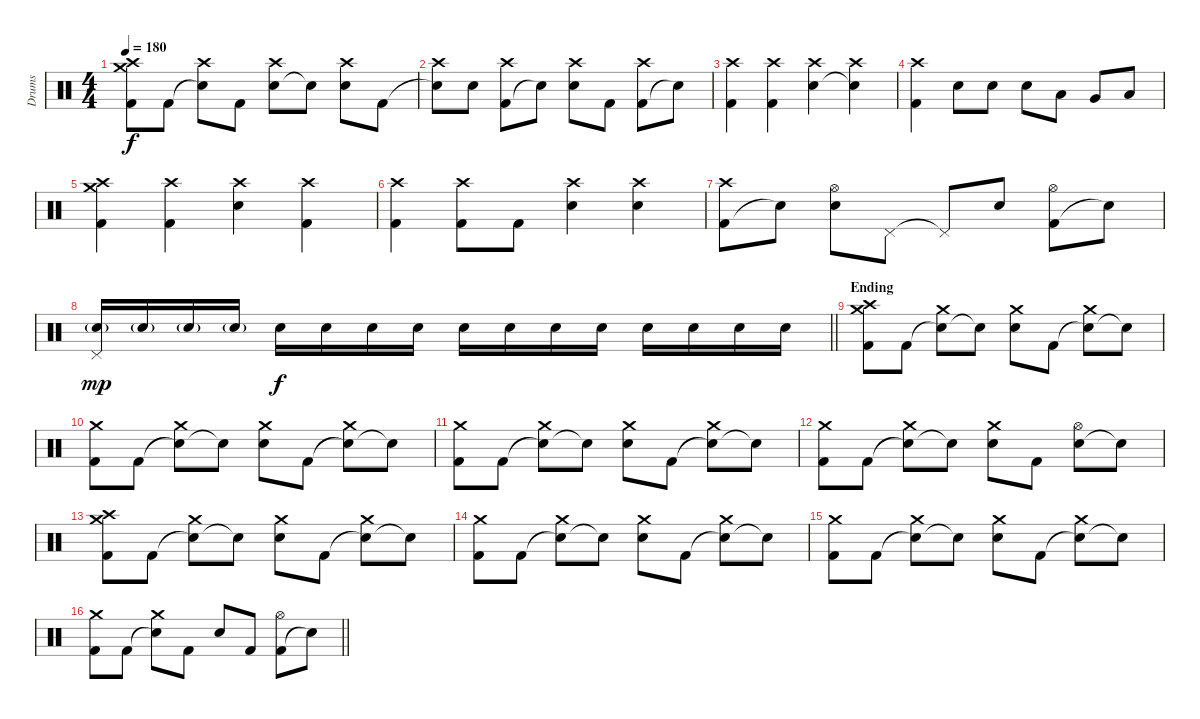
\track ("Drums" "Drums") {instrument percussion}
\staff {score}
\articulation defaults
\ts (4 4)
\tempo 180
\clef neutral
\ks c
("Kick (hit) 2" "Crash medium (hit)" "Crash high (hit)").8{dy f} "Kick (hit) 2".8 ("Snare (hit)"{t} "Crash high (hit)").8 "Kick (hit) 2".8 ("Electric Snare (hit)" "Crash high (hit)").8 "Snare (hit)"{t}.8 ("Electric Snare (hit)" "Crash high (hit)").8 "Kick (hit) 2".8 |
("Snare (hit)"{t} "Crash high (hit)").8 "Electric Snare (hit)".8 ("Kick (hit) 2" "Crash high (hit)").8 "Snare (hit)"{t}.8 ("Electric Snare (hit)" "Crash high (hit)").8 "Kick (hit) 2".8 ("Kick (hit) 2" "Crash high (hit)").8 "Electric Snare (hit)"{t}.8 |
("Kick (hit) 2" "Crash high (hit)").4 ("Kick (hit) 2" "Crash high (hit)").4 ("Electric Snare (hit)" "Crash high (hit)").4 ("Snare (hit)"{t} "Crash high (hit)").4 |
("Kick (hit) 2" "Crash high (hit)").4 "Electric Snare (hit)".8 "Electric Snare (hit)".8 "Electric Snare (hit)".8 "Low Tom (hit)".8 "Very Low Tom (hit)".8 "Low Floor Tom (hit)".8 |
("Kick (hit) 2" "Crash medium (hit)" "Crash high (hit)").4 ("Kick (hit) 2" "Crash high (hit)").4 ("Electric Snare (hit)" "Crash high (hit)").4 ("Kick (hit) 2" "Crash high (hit)").4 |
("Kick (hit) 2" "Crash high (hit)").4 ("Kick (hit) 2" "Crash high (hit)").8 "Kick (hit) 2".8 ("Electric Snare (hit)" "Crash high (hit)").4 ("Electric Snare (hit)" "Crash high (hit)").4 |
("Kick (hit) 2" "Crash high (hit)").8 "Snare (hit)"{t}.8 ("Electric Snare (hit)" "Hi-Hat (open)").8 "Pedal Hi-Hat (hit)".8 "Pedal Hi-Hat (hit)"{t}.8 "Electric Snare (hit)".8 ("Kick (hit) 2" "Hi-Hat (open)").8 "Snare (hit)"{t}.8 |
\barLineRight lightlight
("Electric Snare (hit)"{g} "Pedal Hi-Hat (hit)").16{dy mp} "Electric Snare (hit)"{g}.16 "Electric Snare (hit)"{g}.16 "Electric Snare (hit)"{g}.16 "Electric Snare (hit)".16{dy f} "Electric Snare (hit)".16 "Electric Snare (hit)".16 "Electric Snare (hit)".16 "Electric Snare (hit)".16 "Electric Snare (hit)".16 "Electric Snare (hit)".16 "Electric Snare (hit)".16 "Electric Snare (hit)".16 "Electric Snare (hit)".16 "Electric Snare (hit)".16 "Electric Snare (hit)".16 |
\section ("" "Ending")
("Kick (hit) 2" "Crash medium (hit)" "Crash high (hit)").8 "Kick (hit) 2".8 ("Snare (hit)"{t} "Crash medium (hit)").8 "Snare (hit)"{t}.8 ("Electric Snare (hit)" "Crash medium (hit)").8 "Kick (hit) 2".8 ("Snare (hit)"{t} "Crash medium (hit)").8 "Snare (hit)"{t}.8 |
("Kick (hit) 2" "Crash medium (hit)").8 "Kick (hit) 2".8 ("Snare (hit)"{t} "Crash medium (hit)").8 "Snare (hit)"{t}.8 ("Electric Snare (hit)" "Crash medium (hit)").8 "Kick (hit) 2".8 ("Snare (hit)"{t} "Crash medium (hit)").8 "Snare (hit)"{t}.8 |
("Kick (hit) 2" "Crash medium (hit)").8 "Kick (hit) 2".8 ("Snare (hit)"{t} "Crash medium (hit)").8 "Snare (hit)"{t}.8 ("Electric Snare (hit)" "Crash medium (hit)").8 "Kick (hit) 2".8 ("Snare (hit)"{t} "Crash medium (hit)").8 "Snare (hit)"{t}.8 |
("Kick (hit) 2" "Crash medium (hit)").8 "Kick (hit) 2".8 ("Snare (hit)"{t} "Crash medium (hit)").8 "Snare (hit)"{t}.8 ("Electric Snare (hit)" "Crash medium (hit)").8 "Kick (hit) 2".8 ("Electric Snare (hit)" "Hi-Hat (open)").8 "Snare (hit)"{t}.8 |
("Kick (hit) 2" "Crash medium (hit)" "Crash high (hit)").8 "Kick (hit) 2".8 ("Snare (hit)"{t} "Crash medium (hit)").8 "Snare (hit)"{t}.8 ("Electric Snare (hit)" "Crash medium (hit)").8 "Kick (hit) 2".8 ("Snare (hit)"{t} "Crash medium (hit)").8 "Snare (hit)"{t}.8 |
("Kick (hit) 2" "Crash medium (hit)").8 "Kick (hit) 2".8 ("Snare (hit)"{t} "Crash medium (hit)").8 "Snare (hit)"{t}.8 ("Electric Snare (hit)" "Crash medium (hit)").8 "Kick (hit) 2".8 ("Snare (hit)"{t} "Crash medium (hit)").8 "Snare (hit)"{t}.8 |
("Kick (hit) 2" "Crash medium (hit)").8 "Kick (hit) 2".8 ("Snare (hit)"{t} "Crash medium (hit)").8 "Snare (hit)"{t}.8 ("Electric Snare (hit)" "Crash medium (hit)").8 "Kick (hit) 2".8 ("Snare (hit)"{t} "Crash medium (hit)").8 "Snare (hit)"{t}.8 |
\barLineRight lightlight
("Kick (hit) 2" "Crash medium (hit)").8 "Kick (hit) 2".8 ("Snare (hit)"{t} "Crash medium (hit)").8 "Kick (hit) 2".8 "Electric Snare (hit)".8 "Kick (hit) 2".8 ("Kick (hit) 2" "Hi-Hat (open)").8 "Snare (hit)"{t}.8
